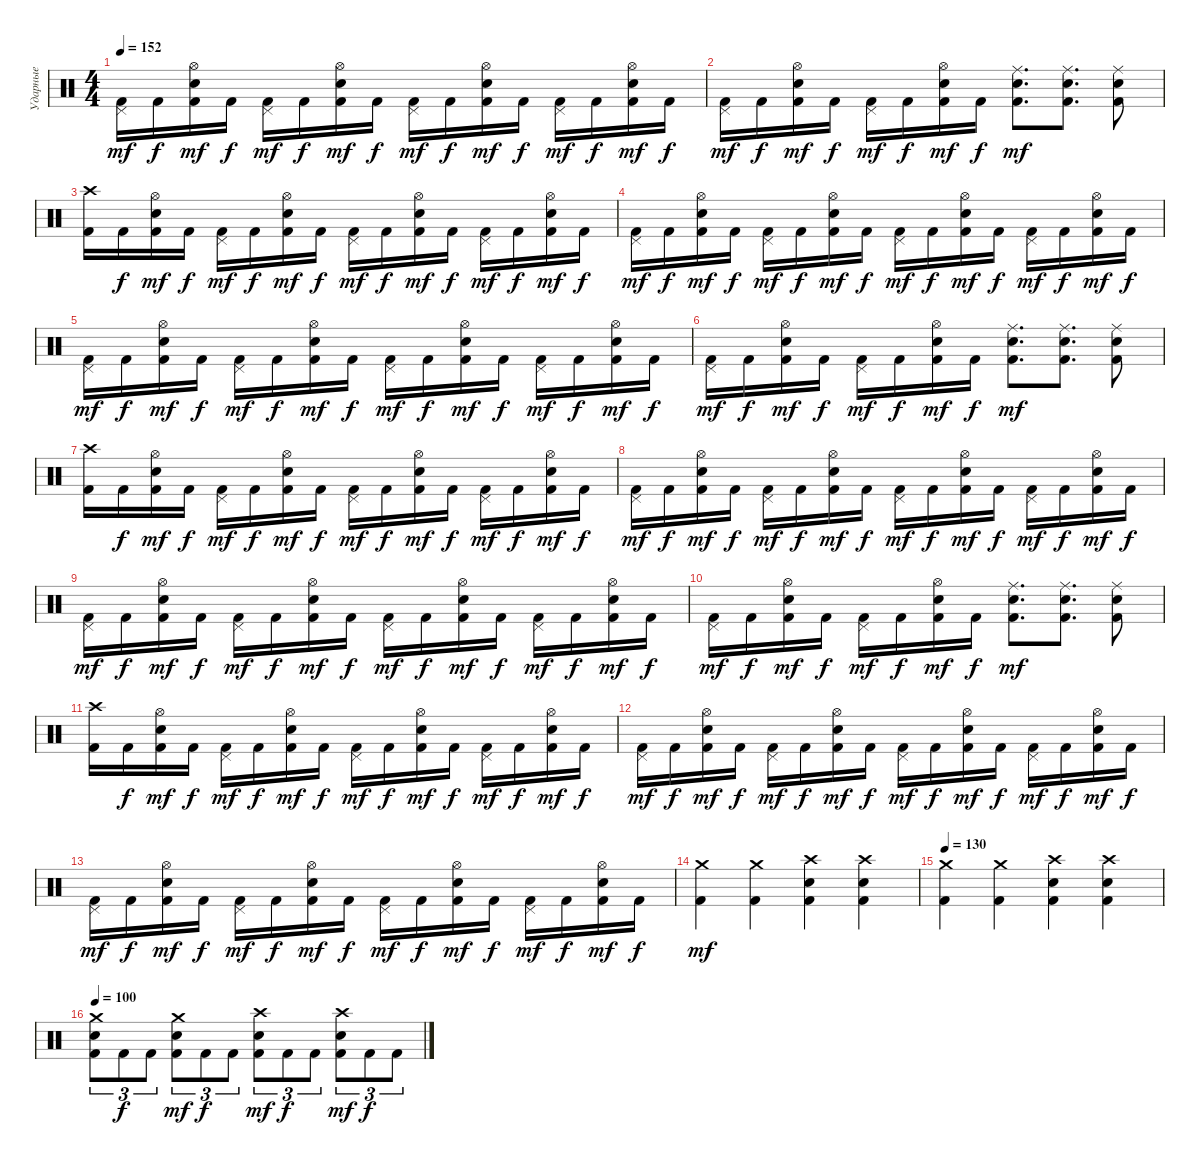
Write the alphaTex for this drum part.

\track ("Ударные" "Ударные") {instrument percussion}
\staff {score}
\articulation defaults
\ts (4 4)
\tempo 152
\clef neutral
\ks c
("Kick (hit) 2" "Pedal Hi-Hat (hit)").16{dy mf} "Kick (hit) 2".16{dy f} ("Kick (hit) 2" "Electric Snare (hit)" "Hi-Hat (open)").16{dy mf} "Kick (hit) 2".16{dy f} ("Kick (hit) 2" "Pedal Hi-Hat (hit)").16{dy mf} "Kick (hit) 2".16{dy f} ("Kick (hit) 2" "Electric Snare (hit)" "Hi-Hat (open)").16{dy mf} "Kick (hit) 2".16{dy f} ("Kick (hit) 2" "Pedal Hi-Hat (hit)").16{dy mf} "Kick (hit) 2".16{dy f} ("Kick (hit) 2" "Electric Snare (hit)" "Hi-Hat (open)").16{dy mf} "Kick (hit) 2".16{dy f} ("Kick (hit) 2" "Pedal Hi-Hat (hit)").16{dy mf} "Kick (hit) 2".16{dy f} ("Kick (hit) 2" "Electric Snare (hit)" "Hi-Hat (open)").16{dy mf} "Kick (hit) 2".16{dy f} |
("Kick (hit) 2" "Pedal Hi-Hat (hit)").16{dy mf} "Kick (hit) 2".16{dy f} ("Kick (hit) 2" "Electric Snare (hit)" "Hi-Hat (open)").16{dy mf} "Kick (hit) 2".16{dy f} ("Kick (hit) 2" "Pedal Hi-Hat (hit)").16{dy mf} "Kick (hit) 2".16{dy f} ("Kick (hit) 2" "Electric Snare (hit)" "Hi-Hat (open)").16{dy mf} "Kick (hit) 2".16{dy f} ("Kick (hit) 2" "Electric Snare (hit)" "Ride (middle)").8{d dy mf} ("Kick (hit) 2" "Electric Snare (hit)" "Ride (middle)").8{d} ("Kick (hit) 2" "Electric Snare (hit)" "Ride (middle)").8 |
("Kick (hit) 2" "Crash high (hit)").16 "Kick (hit) 2".16{dy f} ("Kick (hit) 2" "Electric Snare (hit)" "Hi-Hat (open)").16{dy mf} "Kick (hit) 2".16{dy f} ("Kick (hit) 2" "Pedal Hi-Hat (hit)").16{dy mf} "Kick (hit) 2".16{dy f} ("Kick (hit) 2" "Electric Snare (hit)" "Hi-Hat (open)").16{dy mf} "Kick (hit) 2".16{dy f} ("Kick (hit) 2" "Pedal Hi-Hat (hit)").16{dy mf} "Kick (hit) 2".16{dy f} ("Kick (hit) 2" "Electric Snare (hit)" "Hi-Hat (open)").16{dy mf} "Kick (hit) 2".16{dy f} ("Kick (hit) 2" "Pedal Hi-Hat (hit)").16{dy mf} "Kick (hit) 2".16{dy f} ("Kick (hit) 2" "Electric Snare (hit)" "Hi-Hat (open)").16{dy mf} "Kick (hit) 2".16{dy f} |
("Kick (hit) 2" "Pedal Hi-Hat (hit)").16{dy mf} "Kick (hit) 2".16{dy f} ("Kick (hit) 2" "Electric Snare (hit)" "Hi-Hat (open)").16{dy mf} "Kick (hit) 2".16{dy f} ("Kick (hit) 2" "Pedal Hi-Hat (hit)").16{dy mf} "Kick (hit) 2".16{dy f} ("Kick (hit) 2" "Electric Snare (hit)" "Hi-Hat (open)").16{dy mf} "Kick (hit) 2".16{dy f} ("Kick (hit) 2" "Pedal Hi-Hat (hit)").16{dy mf} "Kick (hit) 2".16{dy f} ("Kick (hit) 2" "Electric Snare (hit)" "Hi-Hat (open)").16{dy mf} "Kick (hit) 2".16{dy f} ("Kick (hit) 2" "Pedal Hi-Hat (hit)").16{dy mf} "Kick (hit) 2".16{dy f} ("Kick (hit) 2" "Electric Snare (hit)" "Hi-Hat (open)").16{dy mf} "Kick (hit) 2".16{dy f} |
("Kick (hit) 2" "Pedal Hi-Hat (hit)").16{dy mf} "Kick (hit) 2".16{dy f} ("Kick (hit) 2" "Electric Snare (hit)" "Hi-Hat (open)").16{dy mf} "Kick (hit) 2".16{dy f} ("Kick (hit) 2" "Pedal Hi-Hat (hit)").16{dy mf} "Kick (hit) 2".16{dy f} ("Kick (hit) 2" "Electric Snare (hit)" "Hi-Hat (open)").16{dy mf} "Kick (hit) 2".16{dy f} ("Kick (hit) 2" "Pedal Hi-Hat (hit)").16{dy mf} "Kick (hit) 2".16{dy f} ("Kick (hit) 2" "Electric Snare (hit)" "Hi-Hat (open)").16{dy mf} "Kick (hit) 2".16{dy f} ("Kick (hit) 2" "Pedal Hi-Hat (hit)").16{dy mf} "Kick (hit) 2".16{dy f} ("Kick (hit) 2" "Electric Snare (hit)" "Hi-Hat (open)").16{dy mf} "Kick (hit) 2".16{dy f} |
("Kick (hit) 2" "Pedal Hi-Hat (hit)").16{dy mf} "Kick (hit) 2".16{dy f} ("Kick (hit) 2" "Electric Snare (hit)" "Hi-Hat (open)").16{dy mf} "Kick (hit) 2".16{dy f} ("Kick (hit) 2" "Pedal Hi-Hat (hit)").16{dy mf} "Kick (hit) 2".16{dy f} ("Kick (hit) 2" "Electric Snare (hit)" "Hi-Hat (open)").16{dy mf} "Kick (hit) 2".16{dy f} ("Kick (hit) 2" "Electric Snare (hit)" "Ride (middle)").8{d dy mf} ("Kick (hit) 2" "Electric Snare (hit)" "Ride (middle)").8{d} ("Kick (hit) 2" "Electric Snare (hit)" "Ride (middle)").8 |
("Kick (hit) 2" "Crash high (hit)").16 "Kick (hit) 2".16{dy f} ("Kick (hit) 2" "Electric Snare (hit)" "Hi-Hat (open)").16{dy mf} "Kick (hit) 2".16{dy f} ("Kick (hit) 2" "Pedal Hi-Hat (hit)").16{dy mf} "Kick (hit) 2".16{dy f} ("Kick (hit) 2" "Electric Snare (hit)" "Hi-Hat (open)").16{dy mf} "Kick (hit) 2".16{dy f} ("Kick (hit) 2" "Pedal Hi-Hat (hit)").16{dy mf} "Kick (hit) 2".16{dy f} ("Kick (hit) 2" "Electric Snare (hit)" "Hi-Hat (open)").16{dy mf} "Kick (hit) 2".16{dy f} ("Kick (hit) 2" "Pedal Hi-Hat (hit)").16{dy mf} "Kick (hit) 2".16{dy f} ("Kick (hit) 2" "Electric Snare (hit)" "Hi-Hat (open)").16{dy mf} "Kick (hit) 2".16{dy f} |
("Kick (hit) 2" "Pedal Hi-Hat (hit)").16{dy mf} "Kick (hit) 2".16{dy f} ("Kick (hit) 2" "Electric Snare (hit)" "Hi-Hat (open)").16{dy mf} "Kick (hit) 2".16{dy f} ("Kick (hit) 2" "Pedal Hi-Hat (hit)").16{dy mf} "Kick (hit) 2".16{dy f} ("Kick (hit) 2" "Electric Snare (hit)" "Hi-Hat (open)").16{dy mf} "Kick (hit) 2".16{dy f} ("Kick (hit) 2" "Pedal Hi-Hat (hit)").16{dy mf} "Kick (hit) 2".16{dy f} ("Kick (hit) 2" "Electric Snare (hit)" "Hi-Hat (open)").16{dy mf} "Kick (hit) 2".16{dy f} ("Kick (hit) 2" "Pedal Hi-Hat (hit)").16{dy mf} "Kick (hit) 2".16{dy f} ("Kick (hit) 2" "Electric Snare (hit)" "Hi-Hat (open)").16{dy mf} "Kick (hit) 2".16{dy f} |
("Kick (hit) 2" "Pedal Hi-Hat (hit)").16{dy mf} "Kick (hit) 2".16{dy f} ("Kick (hit) 2" "Electric Snare (hit)" "Hi-Hat (open)").16{dy mf} "Kick (hit) 2".16{dy f} ("Kick (hit) 2" "Pedal Hi-Hat (hit)").16{dy mf} "Kick (hit) 2".16{dy f} ("Kick (hit) 2" "Electric Snare (hit)" "Hi-Hat (open)").16{dy mf} "Kick (hit) 2".16{dy f} ("Kick (hit) 2" "Pedal Hi-Hat (hit)").16{dy mf} "Kick (hit) 2".16{dy f} ("Kick (hit) 2" "Electric Snare (hit)" "Hi-Hat (open)").16{dy mf} "Kick (hit) 2".16{dy f} ("Kick (hit) 2" "Pedal Hi-Hat (hit)").16{dy mf} "Kick (hit) 2".16{dy f} ("Kick (hit) 2" "Electric Snare (hit)" "Hi-Hat (open)").16{dy mf} "Kick (hit) 2".16{dy f} |
("Kick (hit) 2" "Pedal Hi-Hat (hit)").16{dy mf} "Kick (hit) 2".16{dy f} ("Kick (hit) 2" "Electric Snare (hit)" "Hi-Hat (open)").16{dy mf} "Kick (hit) 2".16{dy f} ("Kick (hit) 2" "Pedal Hi-Hat (hit)").16{dy mf} "Kick (hit) 2".16{dy f} ("Kick (hit) 2" "Electric Snare (hit)" "Hi-Hat (open)").16{dy mf} "Kick (hit) 2".16{dy f} ("Kick (hit) 2" "Electric Snare (hit)" "Ride (middle)").8{d dy mf} ("Kick (hit) 2" "Electric Snare (hit)" "Ride (middle)").8{d} ("Kick (hit) 2" "Electric Snare (hit)" "Ride (middle)").8 |
("Kick (hit) 2" "Crash high (hit)").16 "Kick (hit) 2".16{dy f} ("Kick (hit) 2" "Electric Snare (hit)" "Hi-Hat (open)").16{dy mf} "Kick (hit) 2".16{dy f} ("Kick (hit) 2" "Pedal Hi-Hat (hit)").16{dy mf} "Kick (hit) 2".16{dy f} ("Kick (hit) 2" "Electric Snare (hit)" "Hi-Hat (open)").16{dy mf} "Kick (hit) 2".16{dy f} ("Kick (hit) 2" "Pedal Hi-Hat (hit)").16{dy mf} "Kick (hit) 2".16{dy f} ("Kick (hit) 2" "Electric Snare (hit)" "Hi-Hat (open)").16{dy mf} "Kick (hit) 2".16{dy f} ("Kick (hit) 2" "Pedal Hi-Hat (hit)").16{dy mf} "Kick (hit) 2".16{dy f} ("Kick (hit) 2" "Electric Snare (hit)" "Hi-Hat (open)").16{dy mf} "Kick (hit) 2".16{dy f} |
("Kick (hit) 2" "Pedal Hi-Hat (hit)").16{dy mf} "Kick (hit) 2".16{dy f} ("Kick (hit) 2" "Electric Snare (hit)" "Hi-Hat (open)").16{dy mf} "Kick (hit) 2".16{dy f} ("Kick (hit) 2" "Pedal Hi-Hat (hit)").16{dy mf} "Kick (hit) 2".16{dy f} ("Kick (hit) 2" "Electric Snare (hit)" "Hi-Hat (open)").16{dy mf} "Kick (hit) 2".16{dy f} ("Kick (hit) 2" "Pedal Hi-Hat (hit)").16{dy mf} "Kick (hit) 2".16{dy f} ("Kick (hit) 2" "Electric Snare (hit)" "Hi-Hat (open)").16{dy mf} "Kick (hit) 2".16{dy f} ("Kick (hit) 2" "Pedal Hi-Hat (hit)").16{dy mf} "Kick (hit) 2".16{dy f} ("Kick (hit) 2" "Electric Snare (hit)" "Hi-Hat (open)").16{dy mf} "Kick (hit) 2".16{dy f} |
("Kick (hit) 2" "Pedal Hi-Hat (hit)").16{dy mf} "Kick (hit) 2".16{dy f} ("Kick (hit) 2" "Electric Snare (hit)" "Hi-Hat (open)").16{dy mf} "Kick (hit) 2".16{dy f} ("Kick (hit) 2" "Pedal Hi-Hat (hit)").16{dy mf} "Kick (hit) 2".16{dy f} ("Kick (hit) 2" "Electric Snare (hit)" "Hi-Hat (open)").16{dy mf} "Kick (hit) 2".16{dy f} ("Kick (hit) 2" "Pedal Hi-Hat (hit)").16{dy mf} "Kick (hit) 2".16{dy f} ("Kick (hit) 2" "Electric Snare (hit)" "Hi-Hat (open)").16{dy mf} "Kick (hit) 2".16{dy f} ("Kick (hit) 2" "Pedal Hi-Hat (hit)").16{dy mf} "Kick (hit) 2".16{dy f} ("Kick (hit) 2" "Electric Snare (hit)" "Hi-Hat (open)").16{dy mf} "Kick (hit) 2".16{dy f} |
("Kick (hit) 2" "Crash medium (hit)").4{dy mf} ("Kick (hit) 2" "Crash medium (hit)").4 ("Kick (hit) 2" "Electric Snare (hit)" "Crash high (hit)").4 ("Kick (hit) 2" "Electric Snare (hit)" "Crash high (hit)").4 |
\tempo 130
("Kick (hit) 2" "Crash medium (hit)").4 ("Kick (hit) 2" "Crash medium (hit)").4 ("Kick (hit) 2" "Electric Snare (hit)" "Crash high (hit)").4 ("Kick (hit) 2" "Electric Snare (hit)" "Crash high (hit)").4 |
\tempo 100
("Kick (hit) 2" "Electric Snare (hit)" "Crash medium (hit)").8{tu (3 2)} "Kick (hit) 2".8{tu (3 2) dy f} "Kick (hit) 2".8{tu (3 2)} ("Kick (hit) 2" "Electric Snare (hit)" "Crash medium (hit)").8{tu (3 2) dy mf} "Kick (hit) 2".8{tu (3 2) dy f} "Kick (hit) 2".8{tu (3 2)} ("Kick (hit) 2" "Electric Snare (hit)" "Crash high (hit)").8{tu (3 2) dy mf} "Kick (hit) 2".8{tu (3 2) dy f} "Kick (hit) 2".8{tu (3 2)} ("Kick (hit) 2" "Electric Snare (hit)" "Crash high (hit)").8{tu (3 2) dy mf} "Kick (hit) 2".8{tu (3 2) dy f} "Kick (hit) 2".8{tu (3 2)}
